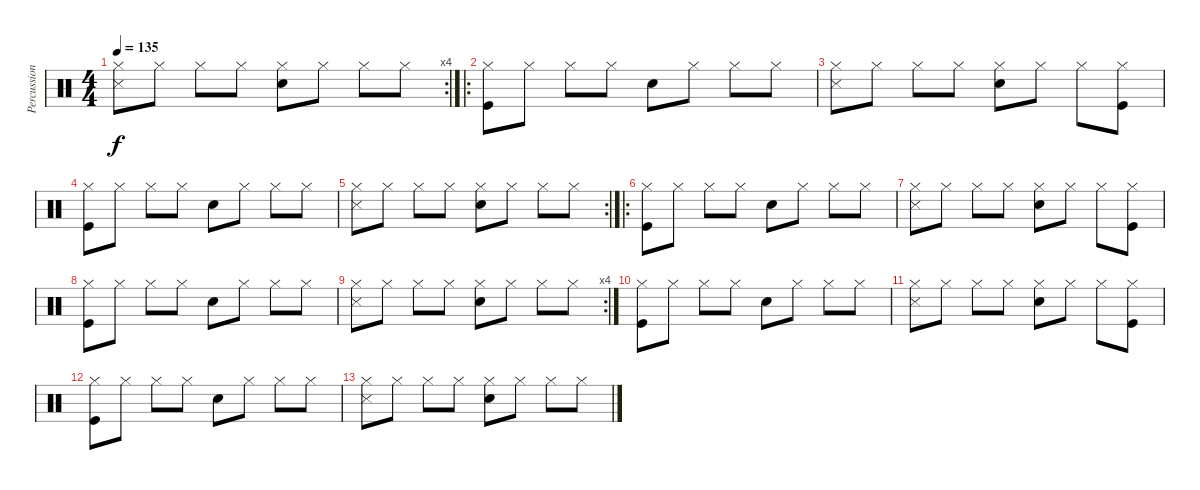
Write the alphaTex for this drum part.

\track ("Percussion" "Percussion") {instrument percussion}
\staff {score}
\articulation defaults
\rc 4
\ts (4 4)
\tempo 135
\clef neutral
\ks c
("Hi-Hat (closed)" "Snare (side stick) 3").8{dy f} "Hi-Hat (closed)".8 "Hi-Hat (closed)".8 "Hi-Hat (closed)".8 ("Hi-Hat (closed)" "Snare (hit) 2").8 "Hi-Hat (closed)".8 "Hi-Hat (closed)".8 "Hi-Hat (closed)".8 |
\ro
("Hi-Hat (closed)" "Kick (hit)").8 "Hi-Hat (closed)".8 "Hi-Hat (closed)".8 "Hi-Hat (closed)".8 "Snare (hit) 2".8 "Hi-Hat (closed)".8 "Hi-Hat (closed)".8 "Hi-Hat (closed)".8 |
("Hi-Hat (closed)" "Snare (side stick) 3").8 "Hi-Hat (closed)".8 "Hi-Hat (closed)".8 "Hi-Hat (closed)".8 ("Hi-Hat (closed)" "Snare (hit) 2").8 "Hi-Hat (closed)".8 "Hi-Hat (closed)".8 ("Hi-Hat (closed)" "Kick (hit)").8 |
("Hi-Hat (closed)" "Kick (hit)").8 "Hi-Hat (closed)".8 "Hi-Hat (closed)".8 "Hi-Hat (closed)".8 "Snare (hit) 2".8 "Hi-Hat (closed)".8 "Hi-Hat (closed)".8 "Hi-Hat (closed)".8 |
\rc 2
("Hi-Hat (closed)" "Snare (side stick) 3").8 "Hi-Hat (closed)".8 "Hi-Hat (closed)".8 "Hi-Hat (closed)".8 ("Hi-Hat (closed)" "Snare (hit) 2").8 "Hi-Hat (closed)".8 "Hi-Hat (closed)".8 "Hi-Hat (closed)".8 |
\ro
("Hi-Hat (closed)" "Kick (hit)").8 "Hi-Hat (closed)".8 "Hi-Hat (closed)".8 "Hi-Hat (closed)".8 "Snare (hit) 2".8 "Hi-Hat (closed)".8 "Hi-Hat (closed)".8 "Hi-Hat (closed)".8 |
("Hi-Hat (closed)" "Snare (side stick) 3").8 "Hi-Hat (closed)".8 "Hi-Hat (closed)".8 "Hi-Hat (closed)".8 ("Hi-Hat (closed)" "Snare (hit) 2").8 "Hi-Hat (closed)".8 "Hi-Hat (closed)".8 ("Hi-Hat (closed)" "Kick (hit)").8 |
("Hi-Hat (closed)" "Kick (hit)").8 "Hi-Hat (closed)".8 "Hi-Hat (closed)".8 "Hi-Hat (closed)".8 "Snare (hit) 2".8 "Hi-Hat (closed)".8 "Hi-Hat (closed)".8 "Hi-Hat (closed)".8 |
\rc 4
("Hi-Hat (closed)" "Snare (side stick) 3").8 "Hi-Hat (closed)".8 "Hi-Hat (closed)".8 "Hi-Hat (closed)".8 ("Hi-Hat (closed)" "Snare (hit) 2").8 "Hi-Hat (closed)".8 "Hi-Hat (closed)".8 "Hi-Hat (closed)".8 |
("Hi-Hat (closed)" "Kick (hit)").8 "Hi-Hat (closed)".8 "Hi-Hat (closed)".8 "Hi-Hat (closed)".8 "Snare (hit) 2".8 "Hi-Hat (closed)".8 "Hi-Hat (closed)".8 "Hi-Hat (closed)".8 |
("Hi-Hat (closed)" "Snare (side stick) 3").8 "Hi-Hat (closed)".8 "Hi-Hat (closed)".8 "Hi-Hat (closed)".8 ("Hi-Hat (closed)" "Snare (hit) 2").8 "Hi-Hat (closed)".8 "Hi-Hat (closed)".8 ("Hi-Hat (closed)" "Kick (hit)").8 |
("Hi-Hat (closed)" "Kick (hit)").8 "Hi-Hat (closed)".8 "Hi-Hat (closed)".8 "Hi-Hat (closed)".8 "Snare (hit) 2".8 "Hi-Hat (closed)".8 "Hi-Hat (closed)".8 "Hi-Hat (closed)".8 |
("Hi-Hat (closed)" "Snare (side stick) 3").8 "Hi-Hat (closed)".8 "Hi-Hat (closed)".8 "Hi-Hat (closed)".8 ("Hi-Hat (closed)" "Snare (hit) 2").8 "Hi-Hat (closed)".8 "Hi-Hat (closed)".8 "Hi-Hat (closed)".8
